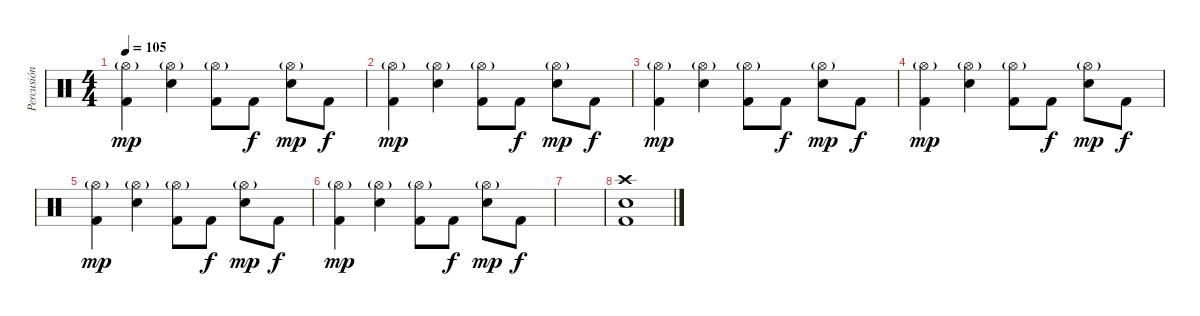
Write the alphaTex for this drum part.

\track ("Percusión" "Percusión") {instrument percussion}
\staff {score}
\articulation defaults
\ts (4 4)
\tempo 105
\clef neutral
\ks c
("Hi-Hat (open)"{g} "Kick (hit) 2").4{dy mp} ("Hi-Hat (open)"{g} "Electric Snare (hit)").4 ("Hi-Hat (open)"{g} "Kick (hit) 2").8 "Kick (hit) 2".8{dy f} ("Hi-Hat (open)"{g} "Electric Snare (hit)").8{dy mp} "Kick (hit) 2".8{dy f} |
("Hi-Hat (open)"{g} "Kick (hit) 2").4{dy mp} ("Hi-Hat (open)"{g} "Electric Snare (hit)").4 ("Hi-Hat (open)"{g} "Kick (hit) 2").8 "Kick (hit) 2".8{dy f} ("Hi-Hat (open)"{g} "Electric Snare (hit)").8{dy mp} "Kick (hit) 2".8{dy f} |
("Hi-Hat (open)"{g} "Kick (hit) 2").4{dy mp} ("Hi-Hat (open)"{g} "Electric Snare (hit)").4 ("Hi-Hat (open)"{g} "Kick (hit) 2").8 "Kick (hit) 2".8{dy f} ("Hi-Hat (open)"{g} "Electric Snare (hit)").8{dy mp} "Kick (hit) 2".8{dy f} |
("Hi-Hat (open)"{g} "Kick (hit) 2").4{dy mp} ("Hi-Hat (open)"{g} "Electric Snare (hit)").4 ("Hi-Hat (open)"{g} "Kick (hit) 2").8 "Kick (hit) 2".8{dy f} ("Hi-Hat (open)"{g} "Electric Snare (hit)").8{dy mp} "Kick (hit) 2".8{dy f} |
("Hi-Hat (open)"{g} "Kick (hit) 2").4{dy mp} ("Hi-Hat (open)"{g} "Electric Snare (hit)").4 ("Hi-Hat (open)"{g} "Kick (hit) 2").8 "Kick (hit) 2".8{dy f} ("Hi-Hat (open)"{g} "Electric Snare (hit)").8{dy mp} "Kick (hit) 2".8{dy f} |
("Hi-Hat (open)"{g} "Kick (hit) 2").4{dy mp} ("Hi-Hat (open)"{g} "Electric Snare (hit)").4 ("Hi-Hat (open)"{g} "Kick (hit) 2").8 "Kick (hit) 2".8{dy f} ("Hi-Hat (open)"{g} "Electric Snare (hit)").8{dy mp} "Kick (hit) 2".8{dy f} |
|
("Crash high (hit)" "Electric Snare (hit)" "Kick (hit) 2").1
